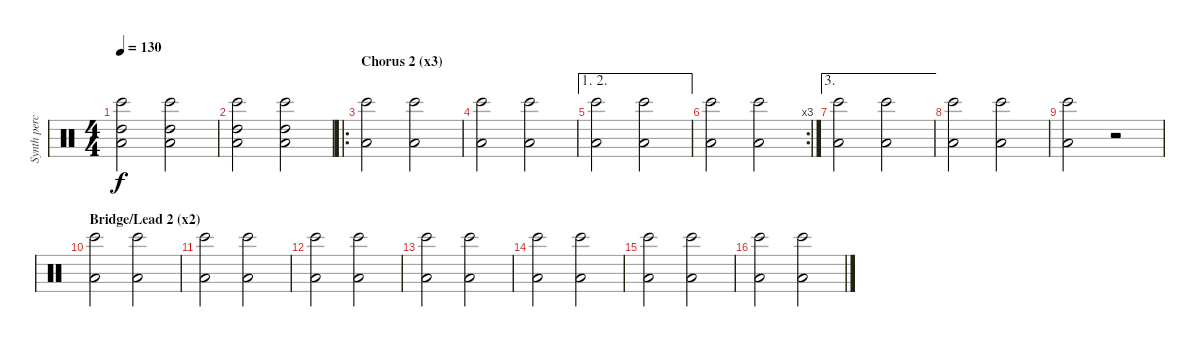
\track ("Synth perc" "Synth perc") {instrument percussion}
\staff {score}
\articulation defaults
\ts (4 4)
\tempo 130
\clef neutral
\ks c
("High Tom (hit)" "Bongo High (hit)" "Low Tom (hit)").2{dy f} ("High Tom (hit)" "Bongo High (hit)" "Low Tom (hit)").2 |
("High Tom (hit)" "Bongo High (hit)" "Low Tom (hit)").2 ("High Tom (hit)" "Bongo High (hit)" "Low Tom (hit)").2 |
\ro
\section ("" "Chorus 2 (x3)")
("Bongo High (hit)" "Low Tom (hit)").2 ("Bongo High (hit)" "Low Tom (hit)").2 |
("Bongo High (hit)" "Low Tom (hit)").2 ("Bongo High (hit)" "Low Tom (hit)").2 |
\ae (1 2)
("Bongo High (hit)" "Low Tom (hit)").2 ("Bongo High (hit)" "Low Tom (hit)").2 |
\rc 3
("Bongo High (hit)" "Low Tom (hit)").2 ("Bongo High (hit)" "Low Tom (hit)").2 |
\ae 3
("Bongo High (hit)" "Low Tom (hit)").2 ("Bongo High (hit)" "Low Tom (hit)").2 |
("Bongo High (hit)" "Low Tom (hit)").2 ("Bongo High (hit)" "Low Tom (hit)").2 |
("Bongo High (hit)" "Low Tom (hit)").2 r.2 |
\section ("" "Bridge/Lead 2 (x2)")
("Bongo High (hit)" "Low Tom (hit)").2 ("Bongo High (hit)" "Low Tom (hit)").2 |
("Bongo High (hit)" "Low Tom (hit)").2 ("Bongo High (hit)" "Low Tom (hit)").2 |
("Bongo High (hit)" "Low Tom (hit)").2 ("Bongo High (hit)" "Low Tom (hit)").2 |
("Bongo High (hit)" "Low Tom (hit)").2 ("Bongo High (hit)" "Low Tom (hit)").2 |
("Bongo High (hit)" "Low Tom (hit)").2 ("Bongo High (hit)" "Low Tom (hit)").2 |
("Bongo High (hit)" "Low Tom (hit)").2 ("Bongo High (hit)" "Low Tom (hit)").2 |
("Bongo High (hit)" "Low Tom (hit)").2 ("Bongo High (hit)" "Low Tom (hit)").2
